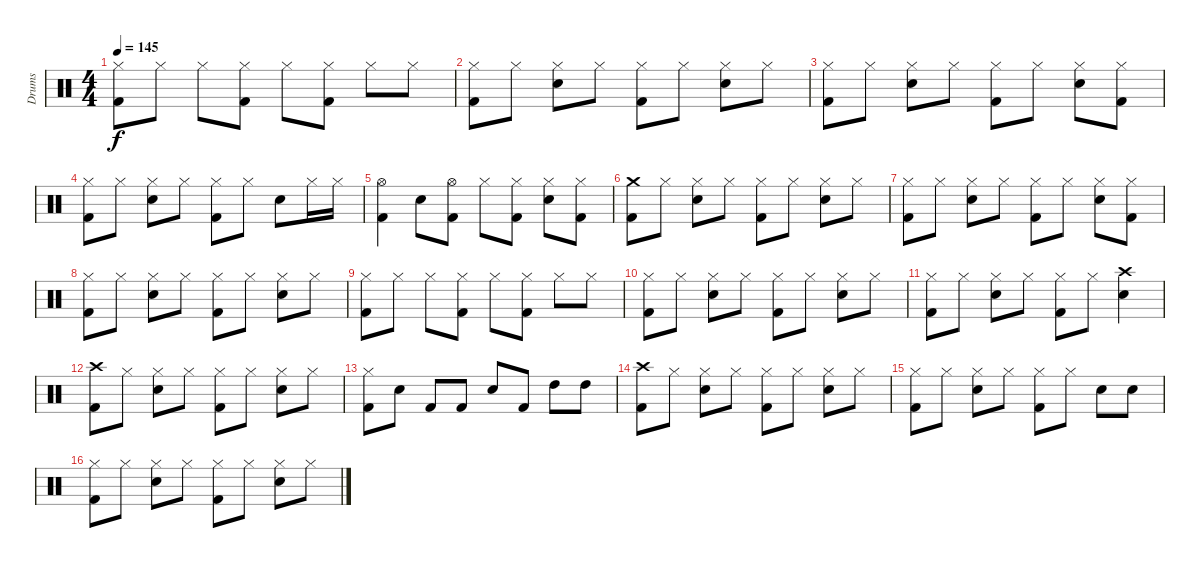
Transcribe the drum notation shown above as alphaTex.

\track ("Drums" "Drums") {instrument percussion}
\staff {score}
\articulation defaults
\ts (4 4)
\tempo 145
\clef neutral
\ks c
("Kick (hit) 2" "Hi-Hat (closed)").8{dy f} "Hi-Hat (closed)".8 "Hi-Hat (closed)".8 ("Kick (hit) 2" "Hi-Hat (closed)").8 "Hi-Hat (closed)".8 ("Kick (hit) 2" "Hi-Hat (closed)").8 "Hi-Hat (closed)".8 "Hi-Hat (closed)".8 |
("Kick (hit) 2" "Hi-Hat (closed)").8 "Hi-Hat (closed)".8 ("Snare (hit) 2" "Hi-Hat (closed)").8 "Hi-Hat (closed)".8 ("Kick (hit) 2" "Hi-Hat (closed)").8 "Hi-Hat (closed)".8 ("Snare (hit) 2" "Hi-Hat (closed)").8 "Hi-Hat (closed)".8 |
("Kick (hit) 2" "Hi-Hat (closed)").8 "Hi-Hat (closed)".8 ("Snare (hit) 2" "Hi-Hat (closed)").8 "Hi-Hat (closed)".8 ("Kick (hit) 2" "Hi-Hat (closed)").8 "Hi-Hat (closed)".8 ("Snare (hit) 2" "Hi-Hat (closed)").8 ("Kick (hit) 2" "Hi-Hat (closed)").8 |
("Hi-Hat (closed)" "Kick (hit) 2").8 "Hi-Hat (closed)".8 ("Snare (hit) 2" "Hi-Hat (closed)").8 "Hi-Hat (closed)".8 ("Hi-Hat (closed)" "Kick (hit) 2").8 "Hi-Hat (closed)".8 "Snare (hit) 2".8 "Hi-Hat (closed)".16 "Hi-Hat (closed)".16 |
("Kick (hit) 2" "Hi-Hat (open)").4 "Snare (hit) 2".8 ("Kick (hit) 2" "Hi-Hat (open)").8 "Hi-Hat (closed)".8 ("Kick (hit) 2" "Hi-Hat (closed)").8 ("Electric Snare (hit)" "Hi-Hat (closed)").8 ("Kick (hit) 2" "Hi-Hat (closed)").8 |
("Crash medium (hit)" "Kick (hit) 2").8 "Hi-Hat (closed)".8 ("Snare (hit) 2" "Hi-Hat (closed)").8 "Hi-Hat (closed)".8 ("Hi-Hat (closed)" "Kick (hit) 2").8 "Hi-Hat (closed)".8 ("Snare (hit) 2" "Hi-Hat (closed)").8 "Hi-Hat (closed)".8 |
("Hi-Hat (closed)" "Kick (hit) 2").8 "Hi-Hat (closed)".8 ("Hi-Hat (closed)" "Snare (hit) 2").8 "Hi-Hat (closed)".8 ("Hi-Hat (closed)" "Kick (hit) 2").8 "Hi-Hat (closed)".8 ("Hi-Hat (closed)" "Snare (hit) 2").8 ("Hi-Hat (closed)" "Kick (hit) 2").8 |
("Hi-Hat (closed)" "Kick (hit) 2").8 "Hi-Hat (closed)".8 ("Hi-Hat (closed)" "Snare (hit) 2").8 "Hi-Hat (closed)".8 ("Hi-Hat (closed)" "Kick (hit) 2").8 "Hi-Hat (closed)".8 ("Hi-Hat (closed)" "Snare (hit) 2").8 "Hi-Hat (closed)".8 |
("Kick (hit) 2" "Hi-Hat (closed)").8 "Hi-Hat (closed)".8 "Hi-Hat (closed)".8 ("Kick (hit) 2" "Hi-Hat (closed)").8 "Hi-Hat (closed)".8 ("Kick (hit) 2" "Hi-Hat (closed)").8 "Hi-Hat (closed)".8 "Hi-Hat (closed)".8 |
("Kick (hit) 2" "Hi-Hat (closed)").8 "Hi-Hat (closed)".8 ("Snare (hit) 2" "Hi-Hat (closed)").8 "Hi-Hat (closed)".8 ("Kick (hit) 2" "Hi-Hat (closed)").8 "Hi-Hat (closed)".8 ("Snare (hit) 2" "Hi-Hat (closed)").8 "Hi-Hat (closed)".8 |
("Kick (hit) 2" "Hi-Hat (closed)").8 "Hi-Hat (closed)".8 ("Snare (hit) 2" "Hi-Hat (closed)").8 "Hi-Hat (closed)".8 ("Kick (hit) 2" "Hi-Hat (closed)").8 "Hi-Hat (closed)".8 ("Snare (hit) 2" "Crash high (hit)").4 |
("Kick (hit) 2" "Crash high (hit)").8 "Hi-Hat (closed)".8 ("Snare (hit) 2" "Hi-Hat (closed)").8 "Hi-Hat (closed)".8 ("Kick (hit) 2" "Hi-Hat (closed)").8 "Hi-Hat (closed)".8 ("Snare (hit) 2" "Hi-Hat (closed)").8 "Hi-Hat (closed)".8 |
("Hi-Hat (closed)" "Kick (hit) 2").8 "Snare (hit) 2".8 "Kick (hit) 2".8 "Kick (hit) 2".8 "Snare (hit) 2".8 "Kick (hit) 2".8 "High Tom (hit)".8 "High Tom (hit)".8 |
("Kick (hit) 2" "Crash high (hit)").8 "Hi-Hat (closed)".8 ("Snare (hit) 2" "Hi-Hat (closed)").8 "Hi-Hat (closed)".8 ("Kick (hit) 2" "Hi-Hat (closed)").8 "Hi-Hat (closed)".8 ("Snare (hit) 2" "Hi-Hat (closed)").8 "Hi-Hat (closed)".8 |
("Kick (hit) 2" "Hi-Hat (closed)").8 "Hi-Hat (closed)".8 ("Snare (hit) 2" "Hi-Hat (closed)").8 "Hi-Hat (closed)".8 ("Kick (hit) 2" "Hi-Hat (closed)").8 "Hi-Hat (closed)".8 "Snare (hit) 2".8 "Snare (hit) 2".8 |
("Kick (hit) 2" "Hi-Hat (closed)").8 "Hi-Hat (closed)".8 ("Snare (hit) 2" "Hi-Hat (closed)").8 "Hi-Hat (closed)".8 ("Kick (hit) 2" "Hi-Hat (closed)").8 "Hi-Hat (closed)".8 ("Snare (hit) 2" "Hi-Hat (closed)").8 "Hi-Hat (closed)".8
